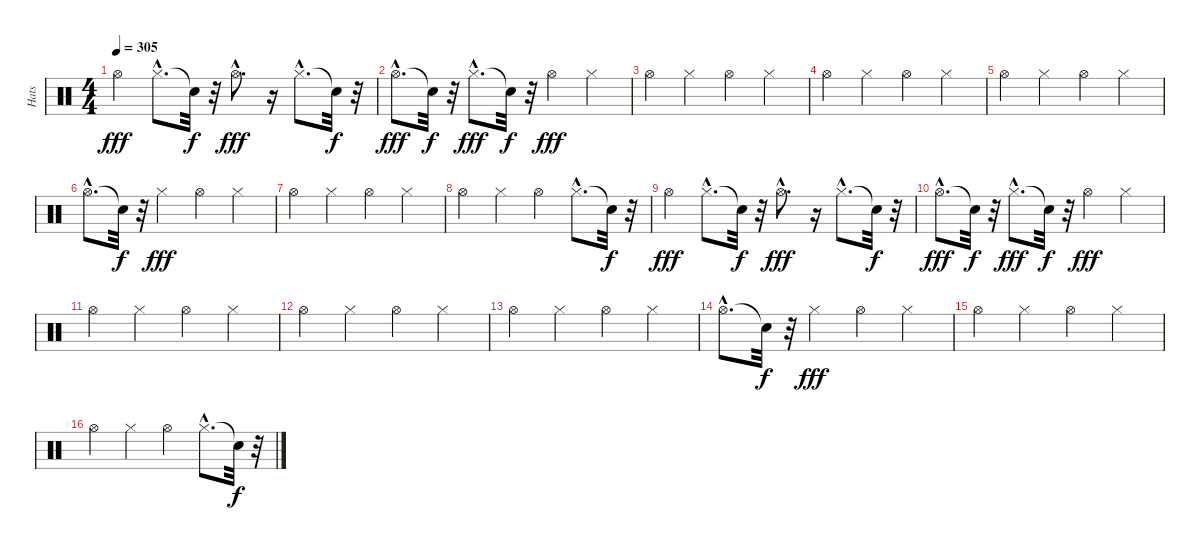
\track ("Hats" "Hats") {instrument percussion}
\staff {score}
\articulation defaults
\ts (4 4)
\tempo 305
\clef neutral
\ks c "Hi-Hat (open)".4{dy fff} "Hi-Hat (closed)"{hac}.8{d} "Snare (hit)"{t}.32{dy f}
r.32 "Hi-Hat (open)"{hac}.8{d dy fff} r.16 "Hi-Hat (closed)"{hac}.8{d} "Snare (hit)"{t}.32{dy f} r.32 |
"Hi-Hat (open)"{hac}.8{d dy fff} "Snare (hit)"{t}.32{dy f} r.32 "Hi-Hat (closed)"{hac}.8{d dy fff} "Snare (hit)"{t}.32{dy f} r.32 "Hi-Hat (open)".4{dy fff} "Hi-Hat (closed)".4 |
"Hi-Hat (open)".4 "Hi-Hat (closed)".4 "Hi-Hat (open)".4 "Hi-Hat (closed)".4 |
"Hi-Hat (open)".4 "Hi-Hat (closed)".4 "Hi-Hat (open)".4 "Hi-Hat (closed)".4 |
"Hi-Hat (open)".4 "Hi-Hat (closed)".4 "Hi-Hat (open)".4 "Hi-Hat (closed)".4 |
"Hi-Hat (open)"{hac}.8{d} "Snare (hit)"{t}.32{dy f} r.32 "Hi-Hat (closed)".4{dy fff} "Hi-Hat (open)".4 "Hi-Hat (closed)".4 |
"Hi-Hat (open)".4 "Hi-Hat (closed)".4 "Hi-Hat (open)".4 "Hi-Hat (closed)".4 |
"Hi-Hat (open)".4 "Hi-Hat (closed)".4 "Hi-Hat (open)".4 "Hi-Hat (closed)"{hac}.8{d} "Snare (hit)"{t}.32{dy f} r.32 |
"Hi-Hat (open)".4{dy fff} "Hi-Hat (closed)"{hac}.8{d} "Snare (hit)"{t}.32{dy f} r.32 "Hi-Hat (open)"{hac}.8{d dy fff} r.16 "Hi-Hat (closed)"{hac}.8{d} "Snare (hit)"{t}.32{dy f} r.32 |
"Hi-Hat (open)"{hac}.8{d dy fff} "Snare (hit)"{t}.32{dy f} r.32 "Hi-Hat (closed)"{hac}.8{d dy fff} "Snare (hit)"{t}.32{dy f} r.32 "Hi-Hat (open)".4{dy fff} "Hi-Hat (closed)".4 |
"Hi-Hat (open)".4 "Hi-Hat (closed)".4 "Hi-Hat (open)".4 "Hi-Hat (closed)".4 |
"Hi-Hat (open)".4 "Hi-Hat (closed)".4 "Hi-Hat (open)".4 "Hi-Hat (closed)".4 |
"Hi-Hat (open)".4 "Hi-Hat (closed)".4 "Hi-Hat (open)".4 "Hi-Hat (closed)".4 |
"Hi-Hat (open)"{hac}.8{d} "Snare (hit)"{t}.32{dy f} r.32 "Hi-Hat (closed)".4{dy fff} "Hi-Hat (open)".4 "Hi-Hat (closed)".4 |
"Hi-Hat (open)".4 "Hi-Hat (closed)".4 "Hi-Hat (open)".4 "Hi-Hat (closed)".4 |
"Hi-Hat (open)".4 "Hi-Hat (closed)".4 "Hi-Hat (open)".4 "Hi-Hat (closed)"{hac}.8{d} "Snare (hit)"{t}.32{dy f} r.32
